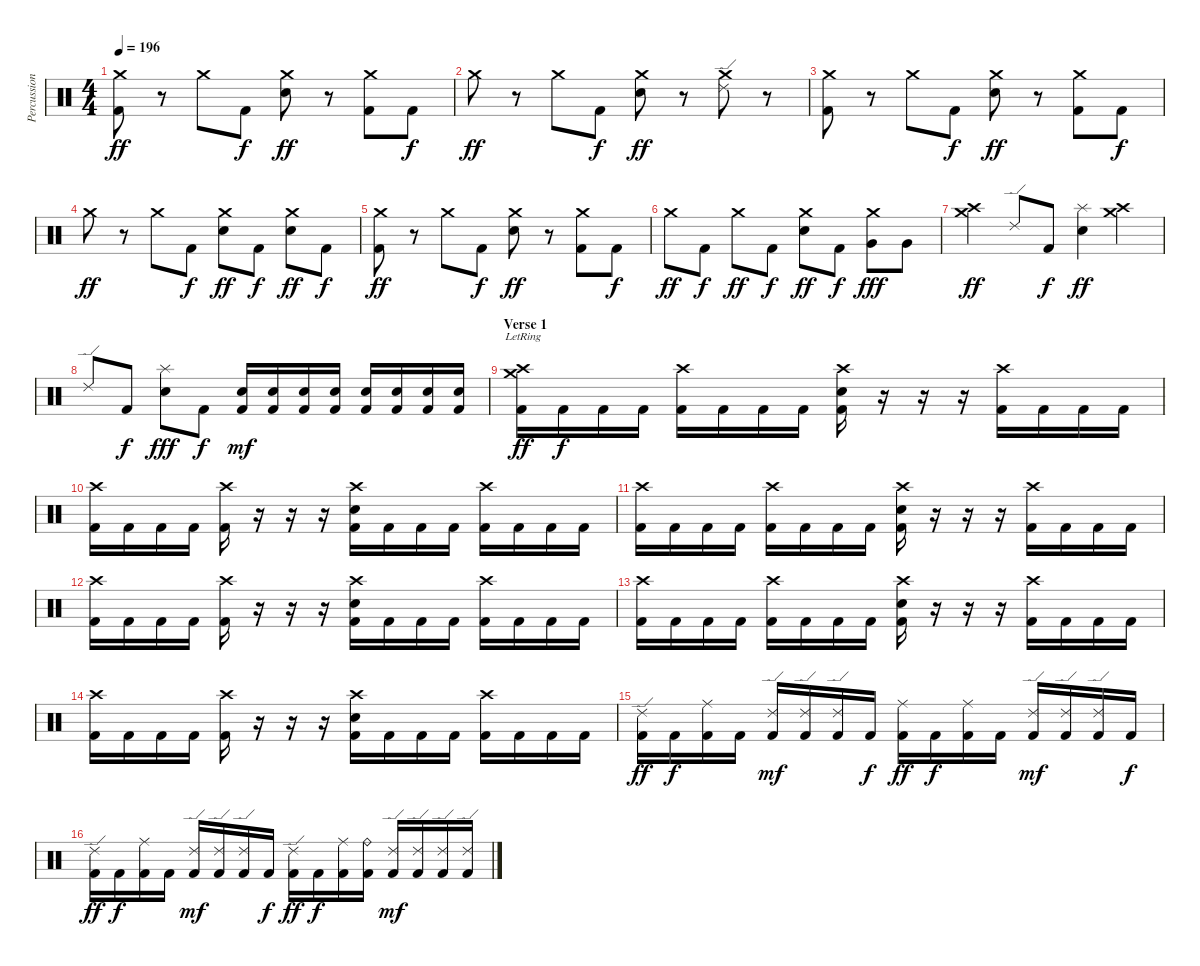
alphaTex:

\track ("Percussions" "Percussion") {instrument percussion}
\staff {score}
\articulation defaults
\ts (4 4)
\tempo 196
\clef neutral
\ks c
("Crash medium (hit)" "Kick (hit) 2").8{dy ff} r.8 "Crash medium (hit)".8 "Kick (hit) 2".8{dy f} ("Crash medium (hit)" "Electric Snare (hit)").8{dy ff} r.8 ("Crash medium (hit)" "Kick (hit) 2").8 "Kick (hit) 2".8{dy f} |
"Crash medium (hit)".8{dy ff} r.8 "Crash medium (hit)".8 "Kick (hit) 2".8{dy f} ("Crash medium (hit)" "Electric Snare (hit)").8{dy ff} r.8 ("Ride (edge) 2" "Crash medium (hit)").8 r.8 |
("Crash medium (hit)" "Kick (hit) 2").8 r.8 "Crash medium (hit)".8 "Kick (hit) 2".8{dy f} ("Crash medium (hit)" "Electric Snare (hit)").8{dy ff} r.8 ("Crash medium (hit)" "Kick (hit) 2").8 "Kick (hit) 2".8{dy f} |
"Crash medium (hit)".8{dy ff} r.8 "Crash medium (hit)".8 "Kick (hit) 2".8{dy f} ("Crash medium (hit)" "Electric Snare (hit)").8{dy ff} "Kick (hit) 2".8{dy f} ("Crash medium (hit)" "Electric Snare (hit)").8{dy ff} "Kick (hit) 2".8{dy f} |
("Crash medium (hit)" "Kick (hit) 2").8{dy ff} r.8 "Crash medium (hit)".8 "Kick (hit) 2".8{dy f} ("Crash medium (hit)" "Electric Snare (hit)").8{dy ff} r.8 ("Crash medium (hit)" "Kick (hit) 2").8 "Kick (hit) 2".8{dy f} |
"Crash medium (hit)".8{dy ff} "Kick (hit) 2".8{dy f} "Crash medium (hit)".8{dy ff} "Kick (hit) 2".8{dy f} ("Crash medium (hit)" "Electric Snare (hit)").8{dy ff} "Kick (hit) 2".8{dy f} ("Crash medium (hit)" "Very Low Tom (hit)").8{dy fff} "Very Low Tom (hit)".8 |
("Crash medium (hit)" "Crash high (hit)").4{dy ff} "Ride (edge) 2".8 "Kick (hit) 2".8{dy f} ("Splash (hit)" "Electric Snare (hit)").4{dy ff} ("Crash medium (hit)" "Crash high (hit)").4 |
"Ride (edge) 2".8 "Kick (hit) 2".8{dy f} ("Splash (hit)" "Electric Snare (hit)").8{dy fff} "Kick (hit) 2".8{dy f} ("Electric Snare (hit)" "Kick (hit) 2").16{dy mf} ("Electric Snare (hit)" "Kick (hit) 2").16 ("Electric Snare (hit)" "Kick (hit) 2").16 ("Electric Snare (hit)" "Kick (hit) 2").16 ("Electric Snare (hit)" "Kick (hit) 2").16 ("Electric Snare (hit)" "Kick (hit) 2").16 ("Electric Snare (hit)" "Kick (hit) 2").16 ("Electric Snare (hit)" "Kick (hit) 2").16 |
\section ("" "Verse 1")
("Crash medium (hit)"{lr} "Crash high (hit)" "Kick (hit) 2").16{dy ff} "Kick (hit) 2".16{dy f} "Kick (hit) 2".16 "Kick (hit) 2".16 ("Crash high (hit)" "Kick (hit) 2").16 "Kick (hit) 2".16 "Kick (hit) 2".16 "Kick (hit) 2".16 ("Crash high (hit)" "Electric Snare (hit)" "Kick (hit) 2").16 r.16 r.16 r.16 ("Crash high (hit)" "Kick (hit) 2").16 "Kick (hit) 2".16 "Kick (hit) 2".16 "Kick (hit) 2".16 |
("Crash high (hit)" "Kick (hit) 2").16 "Kick (hit) 2".16 "Kick (hit) 2".16 "Kick (hit) 2".16 ("Crash high (hit)" "Kick (hit) 2").16 r.16 r.16 r.16 ("Crash high (hit)" "Electric Snare (hit)" "Kick (hit) 2").16 "Kick (hit) 2".16 "Kick (hit) 2".16 "Kick (hit) 2".16 ("Crash high (hit)" "Kick (hit) 2").16 "Kick (hit) 2".16 "Kick (hit) 2".16 "Kick (hit) 2".16 |
("Crash high (hit)" "Kick (hit) 2").16 "Kick (hit) 2".16 "Kick (hit) 2".16 "Kick (hit) 2".16 ("Crash high (hit)" "Kick (hit) 2").16 "Kick (hit) 2".16 "Kick (hit) 2".16 "Kick (hit) 2".16 ("Crash high (hit)" "Electric Snare (hit)" "Kick (hit) 2").16 r.16 r.16 r.16 ("Crash high (hit)" "Kick (hit) 2").16 "Kick (hit) 2".16 "Kick (hit) 2".16 "Kick (hit) 2".16 |
("Crash high (hit)" "Kick (hit) 2").16 "Kick (hit) 2".16 "Kick (hit) 2".16 "Kick (hit) 2".16 ("Crash high (hit)" "Kick (hit) 2").16 r.16 r.16 r.16 ("Crash high (hit)" "Electric Snare (hit)" "Kick (hit) 2").16 "Kick (hit) 2".16 "Kick (hit) 2".16 "Kick (hit) 2".16 ("Crash high (hit)" "Kick (hit) 2").16 "Kick (hit) 2".16 "Kick (hit) 2".16 "Kick (hit) 2".16 |
("Crash high (hit)" "Kick (hit) 2").16 "Kick (hit) 2".16 "Kick (hit) 2".16 "Kick (hit) 2".16 ("Crash high (hit)" "Kick (hit) 2").16 "Kick (hit) 2".16 "Kick (hit) 2".16 "Kick (hit) 2".16 ("Crash high (hit)" "Electric Snare (hit)" "Kick (hit) 2").16 r.16 r.16 r.16 ("Crash high (hit)" "Kick (hit) 2").16 "Kick (hit) 2".16 "Kick (hit) 2".16 "Kick (hit) 2".16 |
("Crash high (hit)" "Kick (hit) 2").16 "Kick (hit) 2".16 "Kick (hit) 2".16 "Kick (hit) 2".16 ("Crash high (hit)" "Kick (hit) 2").16 r.16 r.16 r.16 ("Crash high (hit)" "Electric Snare (hit)" "Kick (hit) 2").16 "Kick (hit) 2".16 "Kick (hit) 2".16 "Kick (hit) 2".16 ("Crash high (hit)" "Kick (hit) 2").16 "Kick (hit) 2".16 "Kick (hit) 2".16 "Kick (hit) 2".16 |
("Ride (edge) 2" "Kick (hit) 2").16{dy ff} "Kick (hit) 2".16{dy f} ("Ride (middle)" "Kick (hit) 2").16 "Kick (hit) 2".16 ("Ride (edge) 2" "Kick (hit) 2").16{dy mf} ("Ride (edge) 2" "Kick (hit) 2").16 ("Ride (edge) 2" "Kick (hit) 2").16 "Kick (hit) 2".16{dy f} ("Ride (middle)" "Kick (hit) 2").16{dy ff} "Kick (hit) 2".16{dy f} ("Ride (middle)" "Kick (hit) 2").16 "Kick (hit) 2".16 ("Ride (edge) 2" "Kick (hit) 2").16{dy mf} ("Ride (edge) 2" "Kick (hit) 2").16 ("Ride (edge) 2" "Kick (hit) 2").16 "Kick (hit) 2".16{dy f} |
("Ride (edge) 2" "Kick (hit) 2").16{dy ff} "Kick (hit) 2".16{dy f} ("Ride (middle)" "Kick (hit) 2").16 "Kick (hit) 2".16 ("Ride (edge) 2" "Kick (hit) 2").16{dy mf} ("Ride (edge) 2" "Kick (hit) 2").16 ("Ride (edge) 2" "Kick (hit) 2").16 "Kick (hit) 2".16{dy f} ("Ride (edge) 2" "Kick (hit) 2").16{dy ff} "Kick (hit) 2".16{dy f} ("Ride (middle)" "Kick (hit) 2").16 ("Ride (bell)" "Kick (hit) 2").16 ("Ride (edge) 2" "Kick (hit) 2").16{dy mf} ("Ride (edge) 2" "Kick (hit) 2").16 ("Ride (edge) 2" "Kick (hit) 2").16 ("Ride (edge) 2" "Kick (hit) 2").16
